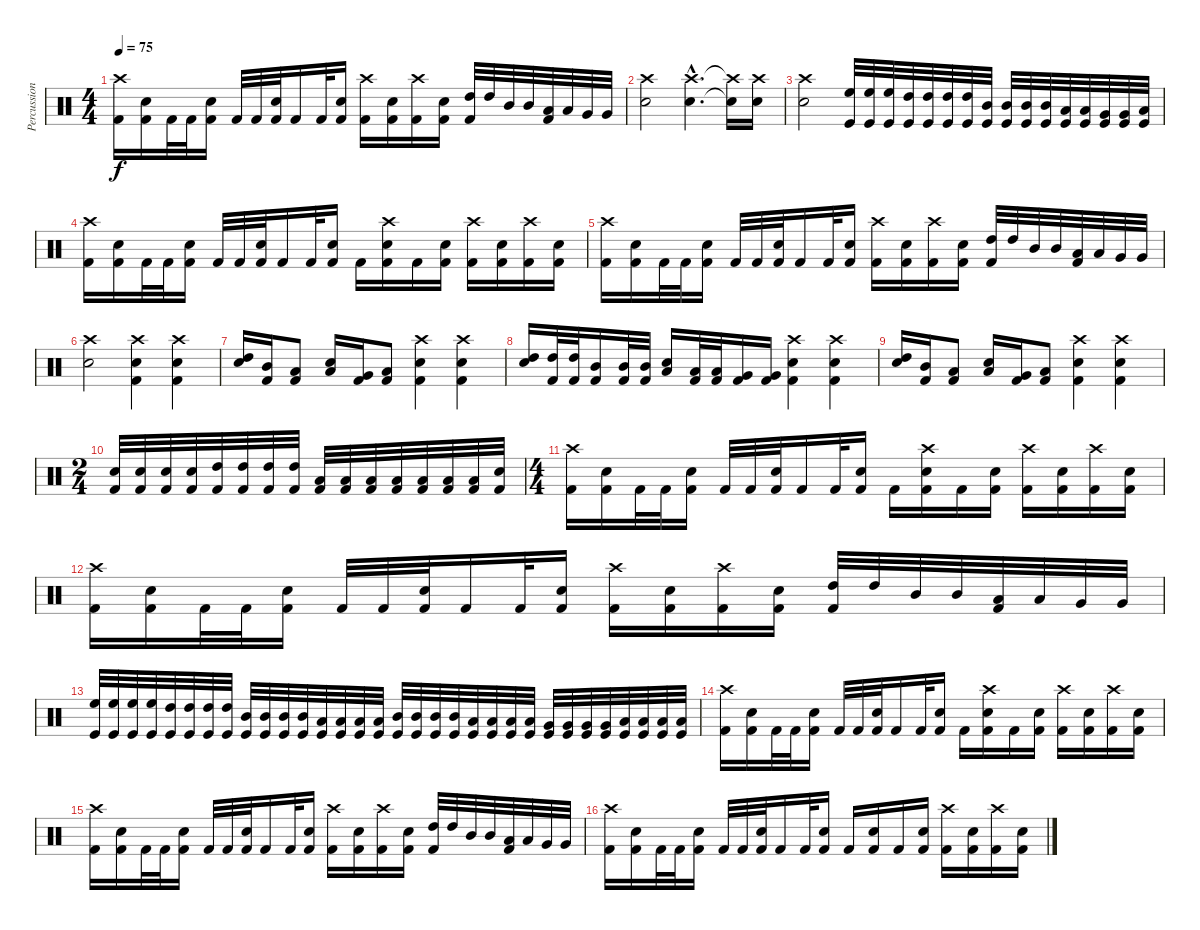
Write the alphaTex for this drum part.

\track ("Percussion" "Percussion") {instrument percussion}
\staff {score}
\articulation defaults
\ts (4 4)
\tempo 75
\clef neutral
\ks c
("Crash high (hit)" "Kick (hit) 2").16{dy f} ("Snare (hit) 2" "Kick (hit) 2").16 "Kick (hit) 2".32 "Kick (hit) 2".32 ("Snare (hit) 2" "Kick (hit) 2").16 "Kick (hit) 2".32 "Kick (hit) 2".32 ("Snare (hit) 2" "Kick (hit) 2").32 "Kick (hit) 2".16 "Kick (hit) 2".32 ("Snare (hit) 2" "Kick (hit) 2").16 ("Crash high (hit)" "Kick (hit) 2").16 ("Snare (hit) 2" "Kick (hit) 2").16 ("Crash high (hit)" "Kick (hit) 2").16 ("Snare (hit) 2" "Kick (hit) 2").16 ("High Tom (hit)" "Kick (hit) 2").32 "High Tom (hit)".32 "Mid Tom (hit)".32 "Mid Tom (hit)".32 ("Low Tom (hit)" "Kick (hit) 2").32 "Low Tom (hit)".32 "Very Low Tom (hit)".32 "Very Low Tom (hit)".32 |
("Crash high (hit)" "Snare (hit) 2").2 ("Crash high (hit)"{hac} "Snare (hit) 2"{hac}).4{d} ("Crash high (hit)"{t} "Snare (hit) 2"{t}).16 ("Crash high (hit)" "Snare (hit) 2").16 |
("Crash high (hit)" "Snare (hit) 2").2 ("High Floor Tom (hit)" "Kick (hit)").32 ("High Floor Tom (hit)" "Kick (hit)").32 ("High Floor Tom (hit)" "Kick (hit)").32 ("High Tom (hit)" "Kick (hit)").32 ("High Tom (hit)" "Kick (hit)").32 ("High Tom (hit)" "Kick (hit)").32 ("High Tom (hit)" "Kick (hit)").32 ("Mid Tom (hit)" "Kick (hit)").32 ("Mid Tom (hit)" "Kick (hit)").32 ("Mid Tom (hit)" "Kick (hit)").32 ("Mid Tom (hit)" "Kick (hit)").32 ("Low Tom (hit)" "Kick (hit)").32 ("Low Tom (hit)" "Kick (hit)").32 ("Very Low Tom (hit)" "Kick (hit)").32 ("Very Low Tom (hit)" "Kick (hit)").32 ("Low Floor Tom (hit)" "Kick (hit)").32 |
("Crash high (hit)" "Kick (hit) 2").16 ("Snare (hit) 2" "Kick (hit) 2").16 "Kick (hit) 2".32 "Kick (hit) 2".32 ("Snare (hit) 2" "Kick (hit) 2").16 "Kick (hit) 2".32 "Kick (hit) 2".32 ("Snare (hit) 2" "Kick (hit) 2").32 "Kick (hit) 2".16 "Kick (hit) 2".32 ("Snare (hit) 2" "Kick (hit) 2").16 "Kick (hit) 2".16 ("Crash high (hit)" "Snare (hit) 2" "Kick (hit) 2").16 "Kick (hit) 2".16 ("Snare (hit) 2" "Kick (hit) 2").16 ("Crash high (hit)" "Kick (hit) 2").16 ("Snare (hit) 2" "Kick (hit) 2").16 ("Crash high (hit)" "Kick (hit) 2").16 ("Snare (hit) 2" "Kick (hit) 2").16 |
("Crash high (hit)" "Kick (hit) 2").16 ("Snare (hit) 2" "Kick (hit) 2").16 "Kick (hit) 2".32 "Kick (hit) 2".32 ("Snare (hit) 2" "Kick (hit) 2").16 "Kick (hit) 2".32 "Kick (hit) 2".32 ("Snare (hit) 2" "Kick (hit) 2").32 "Kick (hit) 2".16 "Kick (hit) 2".32 ("Snare (hit) 2" "Kick (hit) 2").16 ("Crash high (hit)" "Kick (hit) 2").16 ("Snare (hit) 2" "Kick (hit) 2").16 ("Crash high (hit)" "Kick (hit) 2").16 ("Snare (hit) 2" "Kick (hit) 2").16 ("High Tom (hit)" "Kick (hit) 2").32 "High Tom (hit)".32 "Mid Tom (hit)".32 "Mid Tom (hit)".32 ("Low Tom (hit)" "Kick (hit) 2").32 "Low Tom (hit)".32 "Very Low Tom (hit)".32 "Very Low Tom (hit)".32 |
("Snare (hit) 2" "Crash high (hit)").2 ("Crash high (hit)" "Snare (hit) 2" "Kick (hit) 2").4 ("Crash high (hit)" "Snare (hit) 2" "Kick (hit) 2").4 |
("High Tom (hit)" "Snare (hit) 2").16 ("Mid Tom (hit)" "Kick (hit) 2").16 ("Low Tom (hit)" "Kick (hit) 2").8 ("Low Tom (hit)" "Snare (hit) 2").16 ("Very Low Tom (hit)" "Kick (hit) 2").16 ("Low Floor Tom (hit)" "Kick (hit) 2").8 ("Crash high (hit)" "Snare (hit) 2" "Kick (hit) 2").4 ("Crash high (hit)" "Snare (hit) 2" "Kick (hit) 2").4 |
("High Tom (hit)" "Snare (hit) 2").16 ("High Tom (hit)" "Kick (hit) 2").32 ("High Tom (hit)" "Kick (hit) 2").32 ("Mid Tom (hit)" "Kick (hit) 2").16 ("Mid Tom (hit)" "Kick (hit) 2").32 ("Mid Tom (hit)" "Kick (hit) 2").32 ("Low Tom (hit)" "Snare (hit) 2").16 ("Low Tom (hit)" "Kick (hit) 2").32 ("Low Tom (hit)" "Kick (hit) 2").32 ("Very Low Tom (hit)" "Kick (hit) 2").16 ("Very Low Tom (hit)" "Kick (hit) 2").16 ("Crash high (hit)" "Snare (hit) 2" "Kick (hit) 2").4 ("Crash high (hit)" "Snare (hit) 2" "Kick (hit) 2").4 |
("High Tom (hit)" "Snare (hit) 2").16 ("Mid Tom (hit)" "Kick (hit) 2").16 ("Low Tom (hit)" "Kick (hit) 2").8 ("Low Tom (hit)" "Snare (hit) 2").16 ("Very Low Tom (hit)" "Kick (hit) 2").16 ("Low Floor Tom (hit)" "Kick (hit) 2").8 ("Crash high (hit)" "Snare (hit) 2" "Kick (hit) 2").4 ("Crash high (hit)" "Snare (hit) 2" "Kick (hit) 2").4 |
\ts (2 4)
("Snare (hit) 2" "Kick (hit) 2").32 ("Snare (hit) 2" "Kick (hit) 2").32 ("Snare (hit) 2" "Kick (hit) 2").32 ("Snare (hit) 2" "Kick (hit) 2").32 ("High Tom (hit)" "Kick (hit) 2").32 ("High Tom (hit)" "Kick (hit) 2").32 ("High Tom (hit)" "Kick (hit) 2").32 ("High Tom (hit)" "Kick (hit) 2").32 ("Low Tom (hit)" "Kick (hit) 2").32 ("Low Tom (hit)" "Kick (hit) 2").32 ("Low Tom (hit)" "Kick (hit) 2").32 ("Low Tom (hit)" "Kick (hit) 2").32 ("Low Floor Tom (hit)" "Kick (hit) 2").32 ("Low Floor Tom (hit)" "Kick (hit) 2").32 ("Low Floor Tom (hit)" "Kick (hit) 2").32 ("Snare (hit)" "Kick (hit) 2").32 |
\ts (4 4)
("Crash high (hit)" "Kick (hit) 2").16 ("Snare (hit) 2" "Kick (hit) 2").16 "Kick (hit) 2".32 "Kick (hit) 2".32 ("Snare (hit) 2" "Kick (hit) 2").16 "Kick (hit) 2".32 "Kick (hit) 2".32 ("Snare (hit) 2" "Kick (hit) 2").32 "Kick (hit) 2".16 "Kick (hit) 2".32 ("Snare (hit) 2" "Kick (hit) 2").16 "Kick (hit) 2".16 ("Crash high (hit)" "Snare (hit) 2" "Kick (hit) 2").16 "Kick (hit) 2".16 ("Snare (hit) 2" "Kick (hit) 2").16 ("Crash high (hit)" "Kick (hit) 2").16 ("Snare (hit) 2" "Kick (hit) 2").16 ("Crash high (hit)" "Kick (hit) 2").16 ("Snare (hit) 2" "Kick (hit) 2").16 |
("Crash high (hit)" "Kick (hit) 2").16 ("Snare (hit) 2" "Kick (hit) 2").16 "Kick (hit) 2".32 "Kick (hit) 2".32 ("Snare (hit) 2" "Kick (hit) 2").16 "Kick (hit) 2".32 "Kick (hit) 2".32 ("Snare (hit) 2" "Kick (hit) 2").32 "Kick (hit) 2".16 "Kick (hit) 2".32 ("Snare (hit) 2" "Kick (hit) 2").16 ("Crash high (hit)" "Kick (hit) 2").16 ("Snare (hit) 2" "Kick (hit) 2").16 ("Crash high (hit)" "Kick (hit) 2").16 ("Snare (hit) 2" "Kick (hit) 2").16 ("High Tom (hit)" "Kick (hit) 2").32 "High Tom (hit)".32 "Mid Tom (hit)".32 "Mid Tom (hit)".32 ("Low Tom (hit)" "Kick (hit) 2").32 "Low Tom (hit)".32 "Very Low Tom (hit)".32 "Very Low Tom (hit)".32 |
("High Floor Tom (hit)" "Kick (hit)").32 ("High Floor Tom (hit)" "Kick (hit)").32 ("High Floor Tom (hit)" "Kick (hit)").32 ("High Floor Tom (hit)" "Kick (hit)").32 ("High Tom (hit)" "Kick (hit)").32 ("High Tom (hit)" "Kick (hit)").32 ("High Tom (hit)" "Kick (hit)").32 ("High Tom (hit)" "Kick (hit)").32 ("Mid Tom (hit)" "Kick (hit)").32 ("Mid Tom (hit)" "Kick (hit)").32 ("Mid Tom (hit)" "Kick (hit)").32 ("Mid Tom (hit)" "Kick (hit)").32 ("Low Tom (hit)" "Kick (hit)").32 ("Low Tom (hit)" "Kick (hit)").32 ("Low Tom (hit)" "Kick (hit)").32 ("Low Tom (hit)" "Kick (hit)").32 ("Mid Tom (hit)" "Kick (hit)").32 ("Mid Tom (hit)" "Kick (hit)").32 ("Mid Tom (hit)" "Kick (hit)").32 ("Mid Tom (hit)" "Kick (hit)").32 ("Low Tom (hit)" "Kick (hit)").32 ("Low Tom (hit)" "Kick (hit)").32 ("Low Tom (hit)" "Kick (hit)").32 ("Low Tom (hit)" "Kick (hit)").32 ("Very Low Tom (hit)" "Kick (hit)").32 ("Very Low Tom (hit)" "Kick (hit)").32 ("Very Low Tom (hit)" "Kick (hit)").32 ("Very Low Tom (hit)" "Kick (hit)").32 ("Low Floor Tom (hit)" "Kick (hit)").32 ("Low Floor Tom (hit)" "Kick (hit)").32 ("Low Floor Tom (hit)" "Kick (hit)").32 ("Low Floor Tom (hit)" "Kick (hit)").32 |
("Crash high (hit)" "Kick (hit) 2").16 ("Snare (hit) 2" "Kick (hit) 2").16 "Kick (hit) 2".32 "Kick (hit) 2".32 ("Snare (hit) 2" "Kick (hit) 2").16 "Kick (hit) 2".32 "Kick (hit) 2".32 ("Snare (hit) 2" "Kick (hit) 2").32 "Kick (hit) 2".16 "Kick (hit) 2".32 ("Snare (hit) 2" "Kick (hit) 2").16 "Kick (hit) 2".16 ("Crash high (hit)" "Snare (hit) 2" "Kick (hit) 2").16 "Kick (hit) 2".16 ("Snare (hit) 2" "Kick (hit) 2").16 ("Crash high (hit)" "Kick (hit) 2").16 ("Snare (hit) 2" "Kick (hit) 2").16 ("Crash high (hit)" "Kick (hit) 2").16 ("Snare (hit) 2" "Kick (hit) 2").16 |
("Crash high (hit)" "Kick (hit) 2").16 ("Snare (hit) 2" "Kick (hit) 2").16 "Kick (hit) 2".32 "Kick (hit) 2".32 ("Snare (hit) 2" "Kick (hit) 2").16 "Kick (hit) 2".32 "Kick (hit) 2".32 ("Snare (hit) 2" "Kick (hit) 2").32 "Kick (hit) 2".16 "Kick (hit) 2".32 ("Snare (hit) 2" "Kick (hit) 2").16 ("Crash high (hit)" "Kick (hit) 2").16 ("Snare (hit) 2" "Kick (hit) 2").16 ("Crash high (hit)" "Kick (hit) 2").16 ("Snare (hit) 2" "Kick (hit) 2").16 ("High Tom (hit)" "Kick (hit) 2").32 "High Tom (hit)".32 "Mid Tom (hit)".32 "Mid Tom (hit)".32 ("Low Tom (hit)" "Kick (hit) 2").32 "Low Tom (hit)".32 "Very Low Tom (hit)".32 "Very Low Tom (hit)".32 |
("Crash high (hit)" "Kick (hit) 2").16 ("Snare (hit) 2" "Kick (hit) 2").16 "Kick (hit) 2".32 "Kick (hit) 2".32 ("Snare (hit) 2" "Kick (hit) 2").16 "Kick (hit) 2".32 "Kick (hit) 2".32 ("Snare (hit) 2" "Kick (hit) 2").32 "Kick (hit) 2".16 "Kick (hit) 2".32 ("Snare (hit) 2" "Kick (hit) 2").16 "Kick (hit) 2".16 ("Snare (hit) 2" "Kick (hit) 2").16 "Kick (hit) 2".16 ("Snare (hit) 2" "Kick (hit) 2").16 ("Crash high (hit)" "Kick (hit) 2").16 ("Snare (hit) 2" "Kick (hit) 2").16 ("Crash high (hit)" "Kick (hit) 2").16 ("Snare (hit) 2" "Kick (hit) 2").16
